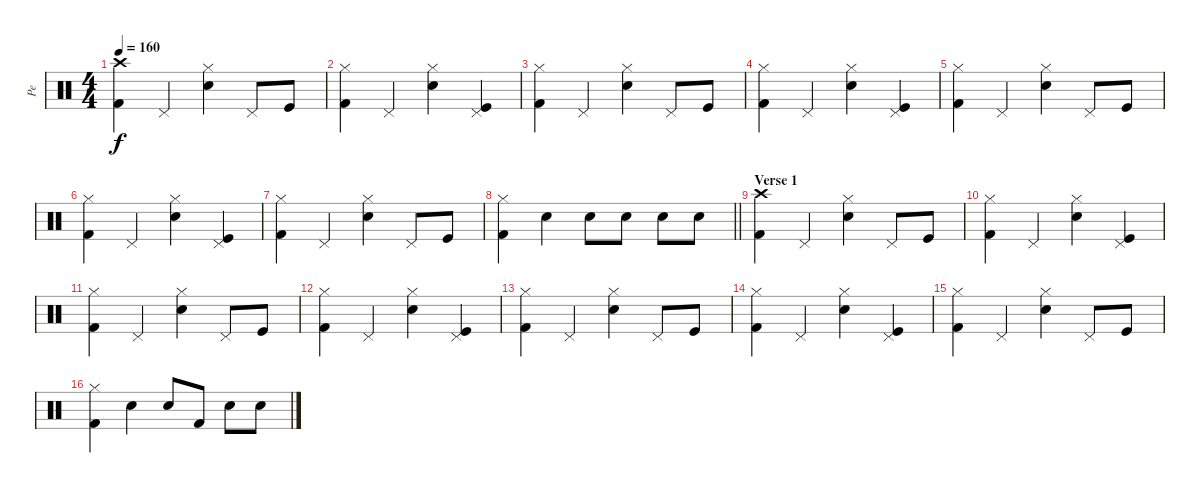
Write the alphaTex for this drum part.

\track ("Pe" "Pe") {instrument percussion}
\staff {score}
\articulation defaults
\ts (4 4)
\tempo 160
\clef neutral
\ks c
("Kick (hit) 2" "Crash high (hit)").4{dy f} "Pedal Hi-Hat (hit)".4 ("Electric Snare (hit)" "Hi-Hat (closed)").4 "Pedal Hi-Hat (hit)".8 "Kick (hit)".8 |
("Kick (hit) 2" "Hi-Hat (closed)").4 "Pedal Hi-Hat (hit)".4 ("Electric Snare (hit)" "Hi-Hat (closed)").4 ("Kick (hit)" "Pedal Hi-Hat (hit)").4 |
("Kick (hit) 2" "Hi-Hat (closed)").4 "Pedal Hi-Hat (hit)".4 ("Electric Snare (hit)" "Hi-Hat (closed)").4 "Pedal Hi-Hat (hit)".8 "Kick (hit)".8 |
("Kick (hit) 2" "Hi-Hat (closed)").4 "Pedal Hi-Hat (hit)".4 ("Electric Snare (hit)" "Hi-Hat (closed)").4 ("Kick (hit)" "Pedal Hi-Hat (hit)").4 |
("Kick (hit) 2" "Hi-Hat (closed)").4 "Pedal Hi-Hat (hit)".4 ("Electric Snare (hit)" "Hi-Hat (closed)").4 "Pedal Hi-Hat (hit)".8 "Kick (hit)".8 |
("Kick (hit) 2" "Hi-Hat (closed)").4 "Pedal Hi-Hat (hit)".4 ("Electric Snare (hit)" "Hi-Hat (closed)").4 ("Kick (hit)" "Pedal Hi-Hat (hit)").4 |
("Kick (hit) 2" "Hi-Hat (closed)").4 "Pedal Hi-Hat (hit)".4 ("Electric Snare (hit)" "Hi-Hat (closed)").4 "Pedal Hi-Hat (hit)".8 "Kick (hit)".8 |
\barLineRight lightlight
("Kick (hit) 2" "Hi-Hat (closed)").4 "Electric Snare (hit)".4 "Electric Snare (hit)".8 "Electric Snare (hit)".8 "Electric Snare (hit)".8 "Electric Snare (hit)".8 |
\section ("" "Verse 1")
("Kick (hit) 2" "Crash high (hit)").4 "Pedal Hi-Hat (hit)".4 ("Electric Snare (hit)" "Hi-Hat (closed)").4 "Pedal Hi-Hat (hit)".8 "Kick (hit)".8 |
("Kick (hit) 2" "Hi-Hat (closed)").4 "Pedal Hi-Hat (hit)".4 ("Electric Snare (hit)" "Hi-Hat (closed)").4 ("Kick (hit)" "Pedal Hi-Hat (hit)").4 |
("Kick (hit) 2" "Hi-Hat (closed)").4 "Pedal Hi-Hat (hit)".4 ("Electric Snare (hit)" "Hi-Hat (closed)").4 "Pedal Hi-Hat (hit)".8 "Kick (hit)".8 |
("Kick (hit) 2" "Hi-Hat (closed)").4 "Pedal Hi-Hat (hit)".4 ("Electric Snare (hit)" "Hi-Hat (closed)").4 ("Kick (hit)" "Pedal Hi-Hat (hit)").4 |
("Kick (hit) 2" "Hi-Hat (closed)").4 "Pedal Hi-Hat (hit)".4 ("Electric Snare (hit)" "Hi-Hat (closed)").4 "Pedal Hi-Hat (hit)".8 "Kick (hit)".8 |
("Kick (hit) 2" "Hi-Hat (closed)").4 "Pedal Hi-Hat (hit)".4 ("Electric Snare (hit)" "Hi-Hat (closed)").4 ("Kick (hit)" "Pedal Hi-Hat (hit)").4 |
("Kick (hit) 2" "Hi-Hat (closed)").4 "Pedal Hi-Hat (hit)".4 ("Electric Snare (hit)" "Hi-Hat (closed)").4 "Pedal Hi-Hat (hit)".8 "Kick (hit)".8 |
("Kick (hit) 2" "Hi-Hat (closed)").4 "Electric Snare (hit)".4 "Electric Snare (hit)".8 "Kick (hit) 2".8 "Electric Snare (hit)".8 "Electric Snare (hit)".8
